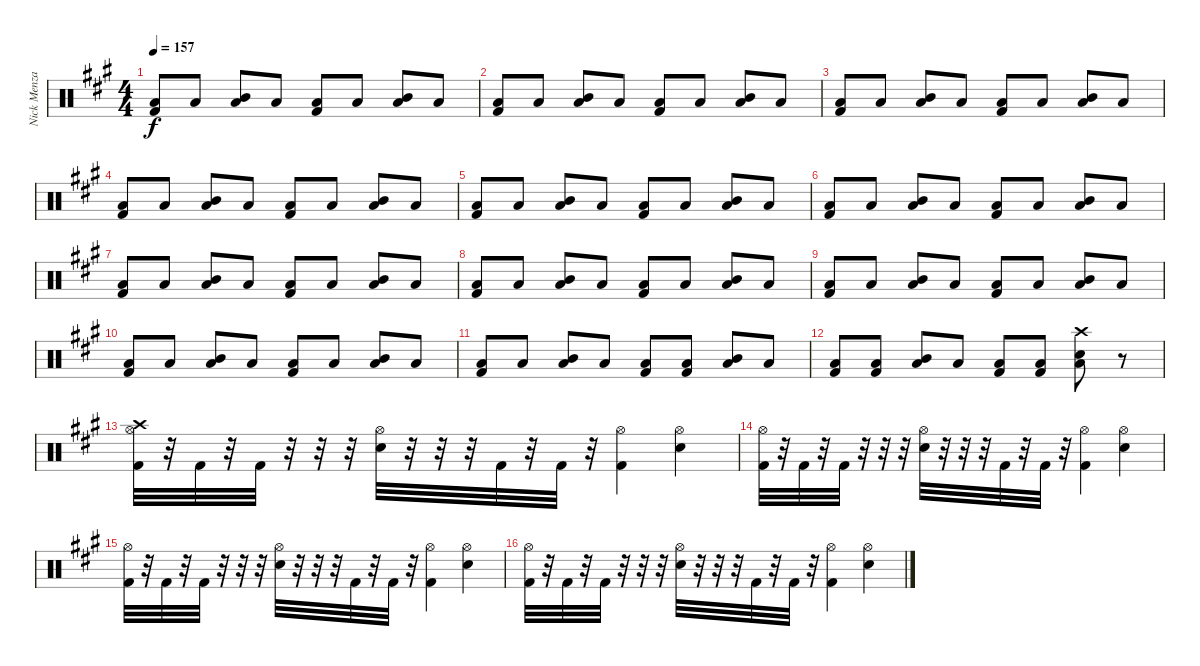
\track ("Nick Menza" "Nick Menza") {instrument percussion}
\staff {score}
\articulation defaults
\ts (4 4)
\tempo 157
\clef neutral
\ks a
("Kick (hit) 2" "Low Floor Tom (hit)").8{dy f} "Low Floor Tom (hit)".8 ("Mid Tom (hit)" "Low Floor Tom (hit)").8 "Low Floor Tom (hit)".8 ("Kick (hit) 2" "Low Floor Tom (hit)").8 "Low Floor Tom (hit)".8 ("Mid Tom (hit)" "Low Floor Tom (hit)").8 "Low Floor Tom (hit)".8 |
("Kick (hit) 2" "Low Floor Tom (hit)").8 "Low Floor Tom (hit)".8 ("Mid Tom (hit)" "Low Floor Tom (hit)").8 "Low Floor Tom (hit)".8 ("Kick (hit) 2" "Low Floor Tom (hit)").8 "Low Floor Tom (hit)".8 ("Mid Tom (hit)" "Low Floor Tom (hit)").8 "Low Floor Tom (hit)".8 |
("Kick (hit) 2" "Low Floor Tom (hit)").8 "Low Floor Tom (hit)".8 ("Mid Tom (hit)" "Low Floor Tom (hit)").8 "Low Floor Tom (hit)".8 ("Kick (hit) 2" "Low Floor Tom (hit)").8 "Low Floor Tom (hit)".8 ("Mid Tom (hit)" "Low Floor Tom (hit)").8 "Low Floor Tom (hit)".8 |
("Kick (hit) 2" "Low Floor Tom (hit)").8 "Low Floor Tom (hit)".8 ("Mid Tom (hit)" "Low Floor Tom (hit)").8 "Low Floor Tom (hit)".8 ("Kick (hit) 2" "Low Floor Tom (hit)").8 "Low Floor Tom (hit)".8 ("Mid Tom (hit)" "Low Floor Tom (hit)").8 "Low Floor Tom (hit)".8 |
("Kick (hit) 2" "Low Floor Tom (hit)").8 "Low Floor Tom (hit)".8 ("Mid Tom (hit)" "Low Floor Tom (hit)").8 "Low Floor Tom (hit)".8 ("Kick (hit) 2" "Low Floor Tom (hit)").8 "Low Floor Tom (hit)".8 ("Mid Tom (hit)" "Low Floor Tom (hit)").8 "Low Floor Tom (hit)".8 |
("Kick (hit) 2" "Low Floor Tom (hit)").8 "Low Floor Tom (hit)".8 ("Mid Tom (hit)" "Low Floor Tom (hit)").8 "Low Floor Tom (hit)".8 ("Kick (hit) 2" "Low Floor Tom (hit)").8 "Low Floor Tom (hit)".8 ("Mid Tom (hit)" "Low Floor Tom (hit)").8 "Low Floor Tom (hit)".8 |
("Kick (hit) 2" "Low Floor Tom (hit)").8 "Low Floor Tom (hit)".8 ("Mid Tom (hit)" "Low Floor Tom (hit)").8 "Low Floor Tom (hit)".8 ("Kick (hit) 2" "Low Floor Tom (hit)").8 "Low Floor Tom (hit)".8 ("Mid Tom (hit)" "Low Floor Tom (hit)").8 "Low Floor Tom (hit)".8 |
("Kick (hit) 2" "Low Floor Tom (hit)").8 "Low Floor Tom (hit)".8 ("Mid Tom (hit)" "Low Floor Tom (hit)").8 "Low Floor Tom (hit)".8 ("Kick (hit) 2" "Low Floor Tom (hit)").8 "Low Floor Tom (hit)".8 ("Mid Tom (hit)" "Low Floor Tom (hit)").8 "Low Floor Tom (hit)".8 |
("Kick (hit) 2" "Low Floor Tom (hit)").8 "Low Floor Tom (hit)".8 ("Mid Tom (hit)" "Low Floor Tom (hit)").8 "Low Floor Tom (hit)".8 ("Kick (hit) 2" "Low Floor Tom (hit)").8 "Low Floor Tom (hit)".8 ("Mid Tom (hit)" "Low Floor Tom (hit)").8 "Low Floor Tom (hit)".8 |
("Kick (hit) 2" "Low Floor Tom (hit)").8 "Low Floor Tom (hit)".8 ("Mid Tom (hit)" "Low Floor Tom (hit)").8 "Low Floor Tom (hit)".8 ("Kick (hit) 2" "Low Floor Tom (hit)").8 "Low Floor Tom (hit)".8 ("Mid Tom (hit)" "Low Floor Tom (hit)").8 "Low Floor Tom (hit)".8 |
("Kick (hit) 2" "Low Floor Tom (hit)").8 "Low Floor Tom (hit)".8 ("Mid Tom (hit)" "Low Floor Tom (hit)").8 "Low Floor Tom (hit)".8 ("Kick (hit) 2" "Low Floor Tom (hit)").8 ("Kick (hit) 2" "Low Floor Tom (hit)").8 ("Mid Tom (hit)" "Low Floor Tom (hit)").8 "Low Floor Tom (hit)".8 |
("Kick (hit) 2" "Low Floor Tom (hit)").8 ("Kick (hit) 2" "Low Floor Tom (hit)").8 ("Mid Tom (hit)" "Low Floor Tom (hit)").8 "Low Floor Tom (hit)".8 ("Kick (hit) 2" "Low Floor Tom (hit)").8 ("Kick (hit) 2" "Low Floor Tom (hit)").8 ("Snare (hit) 2" "Crash high (hit)" "Low Floor Tom (hit)").8 r.8 |
("Kick (hit) 2" "Crash high (hit)" "Hi-Hat (open)").32 r.32 "Kick (hit) 2".32 r.32 "Kick (hit) 2".32 r.32 r.32 r.32 ("Snare (hit) 2" "Hi-Hat (open)").32 r.32 r.32 r.32 "Kick (hit) 2".32 r.32 "Kick (hit) 2".32 r.32 ("Kick (hit) 2" "Hi-Hat (open)").4 ("Snare (hit) 2" "Hi-Hat (open)").4 |
("Kick (hit) 2" "Hi-Hat (open)").32 r.32 "Kick (hit) 2".32 r.32 "Kick (hit) 2".32 r.32 r.32 r.32 ("Snare (hit) 2" "Hi-Hat (open)").32 r.32 r.32 r.32 "Kick (hit) 2".32 r.32 "Kick (hit) 2".32 r.32 ("Kick (hit) 2" "Hi-Hat (open)").4 ("Snare (hit) 2" "Hi-Hat (open)").4 |
("Kick (hit) 2" "Hi-Hat (open)").32 r.32 "Kick (hit) 2".32 r.32 "Kick (hit) 2".32 r.32 r.32 r.32 ("Snare (hit) 2" "Hi-Hat (open)").32 r.32 r.32 r.32 "Kick (hit) 2".32 r.32 "Kick (hit) 2".32 r.32 ("Kick (hit) 2" "Hi-Hat (open)").4 ("Snare (hit) 2" "Hi-Hat (open)").4 |
("Kick (hit) 2" "Hi-Hat (open)").32 r.32 "Kick (hit) 2".32 r.32 "Kick (hit) 2".32 r.32 r.32 r.32 ("Snare (hit) 2" "Hi-Hat (open)").32 r.32 r.32 r.32 "Kick (hit) 2".32 r.32 "Kick (hit) 2".32 r.32 ("Kick (hit) 2" "Hi-Hat (open)").4 ("Snare (hit) 2" "Hi-Hat (open)").4
